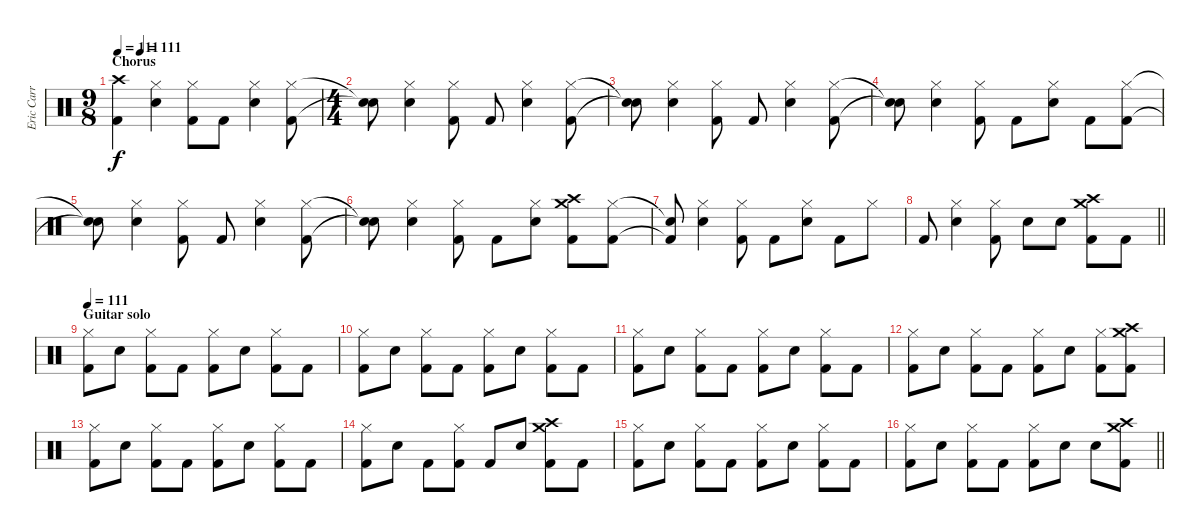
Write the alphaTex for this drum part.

\track ("Eric Carr" "Eric Carr") {instrument percussion}
\staff {score}
\articulation defaults
\ts (9 8)
\section ("" "Chorus")
\tempo 111
\tempo (111 0.1111111111111111)
\clef neutral
\ks c
("Crash high (hit)" "Kick (hit) 2").4{dy f} ("Hi-Hat (closed)" "Snare (hit) 2").4 ("Hi-Hat (closed)" "Kick (hit) 2").8 "Kick (hit) 2".8 ("Hi-Hat (closed)" "Snare (hit) 2").4 ("Hi-Hat (closed)" "Kick (hit) 2").8 |
\ts (4 4)
("Snare (hit)"{t} "Snare (hit)"{t}).8 ("Hi-Hat (closed)" "Snare (hit) 2").4 ("Hi-Hat (closed)" "Kick (hit) 2").8 "Kick (hit) 2".8 ("Hi-Hat (closed)" "Snare (hit) 2").4 ("Hi-Hat (closed)" "Kick (hit) 2").8 |
("Snare (hit)"{t} "Snare (hit)"{t}).8 ("Hi-Hat (closed)" "Snare (hit) 2").4 ("Hi-Hat (closed)" "Kick (hit) 2").8 "Kick (hit) 2".8 ("Hi-Hat (closed)" "Snare (hit) 2").4 ("Hi-Hat (closed)" "Kick (hit) 2").8 |
("Snare (hit)"{t} "Snare (hit)"{t}).8 ("Hi-Hat (closed)" "Snare (hit) 2").4 ("Hi-Hat (closed)" "Kick (hit) 2").8 "Kick (hit) 2".8 ("Hi-Hat (closed)" "Snare (hit) 2").8 "Kick (hit) 2".8 ("Hi-Hat (closed)" "Kick (hit) 2").8 |
("Snare (hit)"{t} "Snare (hit)"{t}).8 ("Hi-Hat (closed)" "Snare (hit) 2").4 ("Hi-Hat (closed)" "Kick (hit) 2").8 "Kick (hit) 2".8 ("Hi-Hat (closed)" "Snare (hit) 2").4 ("Hi-Hat (closed)" "Kick (hit) 2").8 |
("Snare (hit)"{t} "Snare (hit)"{t}).8 ("Hi-Hat (closed)" "Snare (hit) 2").4 ("Hi-Hat (closed)" "Kick (hit) 2").8 "Kick (hit) 2".8 ("Hi-Hat (closed)" "Snare (hit) 2").8 ("Crash medium (hit)" "Crash high (hit)" "Kick (hit) 2").8 ("Hi-Hat (closed)" "Kick (hit) 2").8 |
("Snare (hit)"{t} "Kick (hit) 2"{t}).8 ("Hi-Hat (closed)" "Snare (hit) 2").4 ("Hi-Hat (closed)" "Kick (hit) 2").8 "Kick (hit) 2".8 ("Hi-Hat (closed)" "Snare (hit) 2").8 "Kick (hit) 2".8 "Hi-Hat (closed)".8 |
\barLineRight lightlight "Kick (hit) 2".8
("Hi-Hat (closed)" "Snare (hit) 2").4 ("Hi-Hat (closed)" "Kick (hit) 2").8 "Snare (hit) 2".8 "Snare (hit) 2".8 ("Crash medium (hit)" "Crash high (hit)" "Kick (hit) 2").8 "Kick (hit) 2".8 |
\section ("" "Guitar solo")
\tempo 111
("Hi-Hat (closed)" "Kick (hit) 2").8 "Snare (hit) 2".8 ("Hi-Hat (closed)" "Kick (hit) 2").8 "Kick (hit) 2".8 ("Hi-Hat (closed)" "Kick (hit) 2").8 "Snare (hit) 2".8 ("Hi-Hat (closed)" "Kick (hit) 2").8 "Kick (hit) 2".8 |
("Hi-Hat (closed)" "Kick (hit) 2").8 "Snare (hit) 2".8 ("Hi-Hat (closed)" "Kick (hit) 2").8 "Kick (hit) 2".8 ("Hi-Hat (closed)" "Kick (hit) 2").8 "Snare (hit) 2".8 ("Hi-Hat (closed)" "Kick (hit) 2").8 "Kick (hit) 2".8 |
("Hi-Hat (closed)" "Kick (hit) 2").8 "Snare (hit) 2".8 ("Hi-Hat (closed)" "Kick (hit) 2").8 "Kick (hit) 2".8 ("Hi-Hat (closed)" "Kick (hit) 2").8 "Snare (hit) 2".8 ("Hi-Hat (closed)" "Kick (hit) 2").8 "Kick (hit) 2".8 |
("Hi-Hat (closed)" "Kick (hit) 2").8 "Snare (hit) 2".8 ("Hi-Hat (closed)" "Kick (hit) 2").8 "Kick (hit) 2".8 ("Hi-Hat (closed)" "Kick (hit) 2").8 "Snare (hit) 2".8 ("Hi-Hat (closed)" "Kick (hit) 2").8 ("Crash medium (hit)" "Crash high (hit)" "Kick (hit) 2").8 |
("Hi-Hat (closed)" "Kick (hit) 2").8 "Snare (hit) 2".8 ("Hi-Hat (closed)" "Kick (hit) 2").8 "Kick (hit) 2".8 ("Hi-Hat (closed)" "Kick (hit) 2").8 "Snare (hit) 2".8 ("Hi-Hat (closed)" "Kick (hit) 2").8 "Kick (hit) 2".8 |
("Hi-Hat (closed)" "Kick (hit) 2").8 "Snare (hit) 2".8 "Kick (hit) 2".8 ("Hi-Hat (closed)" "Kick (hit) 2").8 "Kick (hit) 2".8 "Snare (hit) 2".8 ("Crash medium (hit)" "Crash high (hit)" "Kick (hit) 2").8 "Kick (hit) 2".8 |
("Hi-Hat (closed)" "Kick (hit) 2").8 "Snare (hit) 2".8 ("Hi-Hat (closed)" "Kick (hit) 2").8 "Kick (hit) 2".8 ("Hi-Hat (closed)" "Kick (hit) 2").8 "Snare (hit) 2".8 ("Hi-Hat (closed)" "Kick (hit) 2").8 "Kick (hit) 2".8 |
\barLineRight lightlight
("Hi-Hat (closed)" "Kick (hit) 2").8 "Snare (hit) 2".8 ("Hi-Hat (closed)" "Kick (hit) 2").8 "Kick (hit) 2".8 ("Hi-Hat (closed)" "Kick (hit) 2").8 "Snare (hit) 2".8 "Snare (hit) 2".8 ("Crash medium (hit)" "Crash high (hit)" "Kick (hit) 2").8
